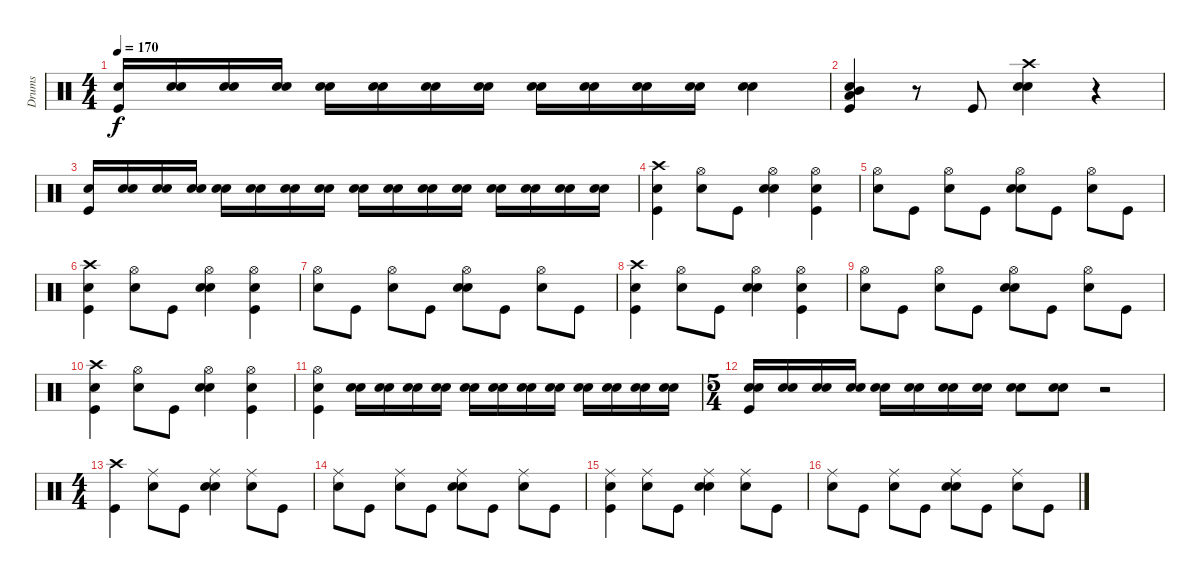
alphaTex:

\track ("Drums" "Drums") {instrument percussion}
\staff {score}
\articulation defaults
\ts (4 4)
\tempo 170
\clef neutral
\ks c
("Kick (hit)" "Electric Snare (hit)").16{dy f} ("Snare (hit)" "Electric Snare (hit)").16 ("Snare (hit)" "Electric Snare (hit)").16 ("Snare (hit)" "Electric Snare (hit)").16 ("Snare (hit)" "Electric Snare (hit)").16 ("Snare (hit)" "Electric Snare (hit)").16 ("Snare (hit)" "Electric Snare (hit)").16 ("Snare (hit)" "Electric Snare (hit)").16 ("Snare (hit)" "Electric Snare (hit)").16 ("Snare (hit)" "Electric Snare (hit)").16 ("Snare (hit)" "Electric Snare (hit)").16 ("Snare (hit)" "Electric Snare (hit)").16 ("Snare (hit)" "Electric Snare (hit)").4 |
("Snare (hit)" "Kick (hit)" "Low Tom (hit)" "Mid Tom (hit)").4 r.8 "Kick (hit)".8 ("Snare (hit)" "Electric Snare (hit)" "Crash high (hit)").4 r.4 |
("Kick (hit)" "Electric Snare (hit)").16 ("Snare (hit)" "Electric Snare (hit)").16 ("Snare (hit)" "Electric Snare (hit)").16 ("Snare (hit)" "Electric Snare (hit)").16 ("Snare (hit)" "Electric Snare (hit)").16 ("Snare (hit)" "Electric Snare (hit)").16 ("Snare (hit)" "Electric Snare (hit)").16 ("Snare (hit)" "Electric Snare (hit)").16 ("Snare (hit)" "Electric Snare (hit)").16 ("Snare (hit)" "Electric Snare (hit)").16 ("Snare (hit)" "Electric Snare (hit)").16 ("Snare (hit)" "Electric Snare (hit)").16 ("Snare (hit)" "Electric Snare (hit)").16 ("Snare (hit)" "Electric Snare (hit)").16 ("Snare (hit)" "Electric Snare (hit)").16 ("Snare (hit)" "Electric Snare (hit)").16 |
("Snare (hit)" "Kick (hit)" "Crash high (hit)").4 ("Snare (hit)" "Hi-Hat (open)").8 "Kick (hit)".8 ("Snare (hit)" "Electric Snare (hit)" "Hi-Hat (open)").4 ("Snare (hit)" "Kick (hit)" "Hi-Hat (open)").4 |
("Snare (hit)" "Hi-Hat (open)").8 "Kick (hit)".8 ("Snare (hit)" "Hi-Hat (open)").8 "Kick (hit)".8 ("Snare (hit)" "Electric Snare (hit)" "Hi-Hat (open)").8 "Kick (hit)".8 ("Snare (hit)" "Hi-Hat (open)").8 "Kick (hit)".8 |
("Snare (hit)" "Kick (hit)" "Crash high (hit)").4 ("Snare (hit)" "Hi-Hat (open)").8 "Kick (hit)".8 ("Snare (hit)" "Electric Snare (hit)" "Hi-Hat (open)").4 ("Snare (hit)" "Kick (hit)" "Hi-Hat (open)").4 |
("Snare (hit)" "Hi-Hat (open)").8 "Kick (hit)".8 ("Snare (hit)" "Hi-Hat (open)").8 "Kick (hit)".8 ("Snare (hit)" "Electric Snare (hit)" "Hi-Hat (open)").8 "Kick (hit)".8 ("Snare (hit)" "Hi-Hat (open)").8 "Kick (hit)".8 |
("Snare (hit)" "Kick (hit)" "Crash high (hit)").4 ("Snare (hit)" "Hi-Hat (open)").8 "Kick (hit)".8 ("Snare (hit)" "Electric Snare (hit)" "Hi-Hat (open)").4 ("Snare (hit)" "Kick (hit)" "Hi-Hat (open)").4 |
("Snare (hit)" "Hi-Hat (open)").8 "Kick (hit)".8 ("Snare (hit)" "Hi-Hat (open)").8 "Kick (hit)".8 ("Snare (hit)" "Electric Snare (hit)" "Hi-Hat (open)").8 "Kick (hit)".8 ("Snare (hit)" "Hi-Hat (open)").8 "Kick (hit)".8 |
("Snare (hit)" "Kick (hit)" "Crash high (hit)").4 ("Snare (hit)" "Hi-Hat (open)").8 "Kick (hit)".8 ("Snare (hit)" "Electric Snare (hit)" "Hi-Hat (open)").4 ("Snare (hit)" "Kick (hit)" "Hi-Hat (open)").4 |
("Snare (hit)" "Kick (hit)" "Hi-Hat (open)").4 ("Snare (hit)" "Electric Snare (hit)").16 ("Snare (hit)" "Electric Snare (hit)").16 ("Snare (hit)" "Electric Snare (hit)").16 ("Snare (hit)" "Electric Snare (hit)").16 ("Snare (hit)" "Electric Snare (hit)").16 ("Snare (hit)" "Electric Snare (hit)").16 ("Snare (hit)" "Electric Snare (hit)").16 ("Snare (hit)" "Electric Snare (hit)").16 ("Snare (hit)" "Electric Snare (hit)").16 ("Snare (hit)" "Electric Snare (hit)").16 ("Snare (hit)" "Electric Snare (hit)").16 ("Snare (hit)" "Electric Snare (hit)").16 |
\ts (5 4)
("Snare (hit)" "Kick (hit)" "Electric Snare (hit)").16 ("Snare (hit)" "Electric Snare (hit)").16 ("Snare (hit)" "Electric Snare (hit)").16 ("Snare (hit)" "Electric Snare (hit)").16 ("Snare (hit)" "Electric Snare (hit)").16 ("Snare (hit)" "Electric Snare (hit)").16 ("Snare (hit)" "Electric Snare (hit)").16 ("Snare (hit)" "Electric Snare (hit)").16 ("Snare (hit)" "Electric Snare (hit)").8 ("Snare (hit)" "Electric Snare (hit)").8 r.2 |
\ts (4 4)
("Kick (hit)" "Crash high (hit)").4 ("Snare (hit)" "Ride (middle)").8 "Kick (hit)".8 ("Snare (hit)" "Electric Snare (hit)" "Ride (middle)").4 ("Snare (hit)" "Ride (middle)").8 "Kick (hit)".8 |
("Snare (hit)" "Ride (middle)").8 "Kick (hit)".8 ("Snare (hit)" "Ride (middle)").8 "Kick (hit)".8 ("Snare (hit)" "Electric Snare (hit)" "Ride (middle)").8 "Kick (hit)".8 ("Snare (hit)" "Ride (middle)").8 "Kick (hit)".8 |
("Snare (hit)" "Kick (hit)" "Ride (middle)").4 ("Snare (hit)" "Ride (middle)").8 "Kick (hit)".8 ("Snare (hit)" "Electric Snare (hit)" "Ride (middle)").4 ("Snare (hit)" "Ride (middle)").8 "Kick (hit)".8 |
("Snare (hit)" "Ride (middle)").8 "Kick (hit)".8 ("Snare (hit)" "Ride (middle)").8 "Kick (hit)".8 ("Snare (hit)" "Electric Snare (hit)" "Ride (middle)").8 "Kick (hit)".8 ("Snare (hit)" "Ride (middle)").8 "Kick (hit)".8
